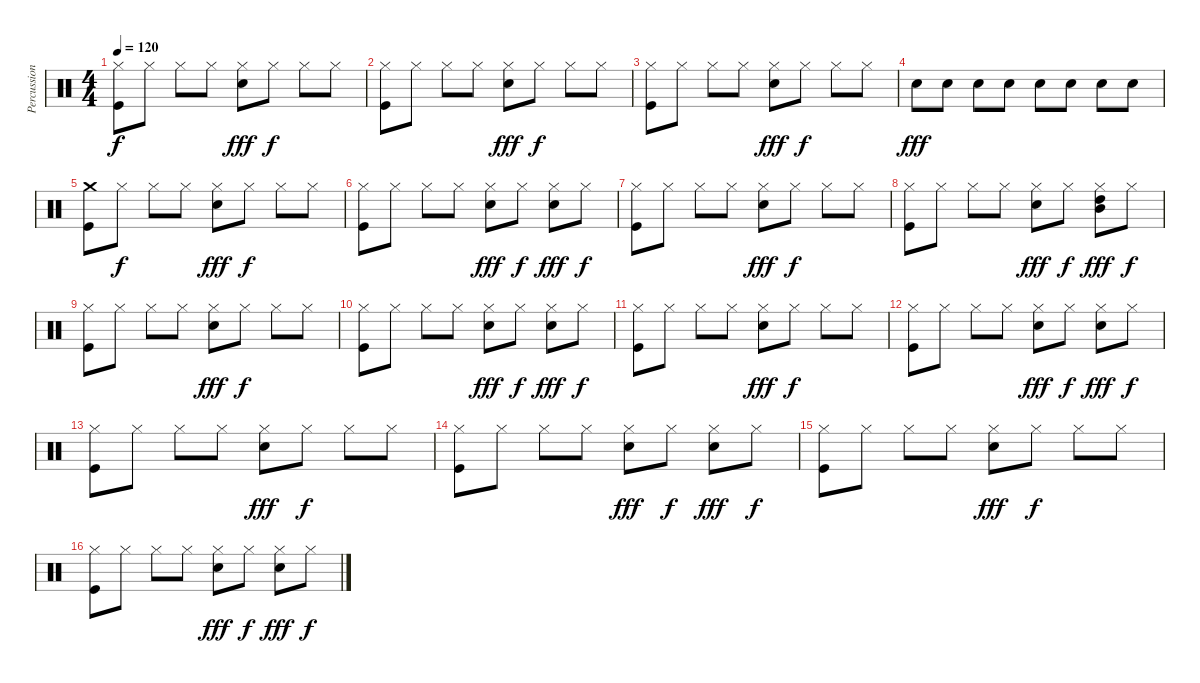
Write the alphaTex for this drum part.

\track ("Percussions" "Percussion") {instrument percussion}
\staff {score}
\articulation defaults
\ts (4 4)
\tempo 120
\clef neutral
\ks c
("Hi-Hat (closed)" "Kick (hit)").8{dy f} "Hi-Hat (closed)".8 "Hi-Hat (closed)".8 "Hi-Hat (closed)".8 ("Hi-Hat (closed)" "Snare (hit) 2").8{dy fff} "Hi-Hat (closed)".8{dy f} "Hi-Hat (closed)".8 "Hi-Hat (closed)".8 |
("Hi-Hat (closed)" "Kick (hit)").8 "Hi-Hat (closed)".8 "Hi-Hat (closed)".8 "Hi-Hat (closed)".8 ("Hi-Hat (closed)" "Snare (hit) 2").8{dy fff} "Hi-Hat (closed)".8{dy f} "Hi-Hat (closed)".8 "Hi-Hat (closed)".8 |
("Hi-Hat (closed)" "Kick (hit)").8 "Hi-Hat (closed)".8 "Hi-Hat (closed)".8 "Hi-Hat (closed)".8 ("Hi-Hat (closed)" "Snare (hit) 2").8{dy fff} "Hi-Hat (closed)".8{dy f} "Hi-Hat (closed)".8 "Hi-Hat (closed)".8 |
"Snare (hit) 2".8{dy fff} "Snare (hit) 2".8 "Snare (hit) 2".8 "Snare (hit) 2".8 "Snare (hit) 2".8 "Snare (hit) 2".8 "Snare (hit) 2".8 "Snare (hit) 2".8 |
("Crash medium (hit)" "Kick (hit)").8 "Hi-Hat (closed)".8{dy f} "Hi-Hat (closed)".8 "Hi-Hat (closed)".8 ("Hi-Hat (closed)" "Snare (hit) 2").8{dy fff} "Hi-Hat (closed)".8{dy f} "Hi-Hat (closed)".8 "Hi-Hat (closed)".8 |
("Hi-Hat (closed)" "Kick (hit)").8 "Hi-Hat (closed)".8 "Hi-Hat (closed)".8 "Hi-Hat (closed)".8 ("Hi-Hat (closed)" "Snare (hit) 2").8{dy fff} "Hi-Hat (closed)".8{dy f} ("Hi-Hat (closed)" "Snare (hit) 2").8{dy fff} "Hi-Hat (closed)".8{dy f} |
("Hi-Hat (closed)" "Kick (hit)").8 "Hi-Hat (closed)".8 "Hi-Hat (closed)".8 "Hi-Hat (closed)".8 ("Hi-Hat (closed)" "Snare (hit) 2").8{dy fff} "Hi-Hat (closed)".8{dy f} "Hi-Hat (closed)".8 "Hi-Hat (closed)".8 |
("Hi-Hat (closed)" "Kick (hit)").8 "Hi-Hat (closed)".8 "Hi-Hat (closed)".8 "Hi-Hat (closed)".8 ("Hi-Hat (closed)" "Snare (hit) 2").8{dy fff} "Hi-Hat (closed)".8{dy f} ("Hi-Hat (closed)" "High Tom (hit)" "Mid Tom (hit)").8{dy fff} "Hi-Hat (closed)".8{dy f} |
("Hi-Hat (closed)" "Kick (hit)").8 "Hi-Hat (closed)".8 "Hi-Hat (closed)".8 "Hi-Hat (closed)".8 ("Hi-Hat (closed)" "Snare (hit) 2").8{dy fff} "Hi-Hat (closed)".8{dy f} "Hi-Hat (closed)".8 "Hi-Hat (closed)".8 |
("Hi-Hat (closed)" "Kick (hit)").8 "Hi-Hat (closed)".8 "Hi-Hat (closed)".8 "Hi-Hat (closed)".8 ("Hi-Hat (closed)" "Snare (hit) 2").8{dy fff} "Hi-Hat (closed)".8{dy f} ("Hi-Hat (closed)" "Snare (hit) 2").8{dy fff} "Hi-Hat (closed)".8{dy f} |
("Hi-Hat (closed)" "Kick (hit)").8 "Hi-Hat (closed)".8 "Hi-Hat (closed)".8 "Hi-Hat (closed)".8 ("Hi-Hat (closed)" "Snare (hit) 2").8{dy fff} "Hi-Hat (closed)".8{dy f} "Hi-Hat (closed)".8 "Hi-Hat (closed)".8 |
("Hi-Hat (closed)" "Kick (hit)").8 "Hi-Hat (closed)".8 "Hi-Hat (closed)".8 "Hi-Hat (closed)".8 ("Hi-Hat (closed)" "Snare (hit) 2").8{dy fff} "Hi-Hat (closed)".8{dy f} ("Hi-Hat (closed)" "Snare (hit) 2").8{dy fff} "Hi-Hat (closed)".8{dy f} |
("Hi-Hat (closed)" "Kick (hit)").8 "Hi-Hat (closed)".8 "Hi-Hat (closed)".8 "Hi-Hat (closed)".8 ("Hi-Hat (closed)" "Snare (hit) 2").8{dy fff} "Hi-Hat (closed)".8{dy f} "Hi-Hat (closed)".8 "Hi-Hat (closed)".8 |
("Hi-Hat (closed)" "Kick (hit)").8 "Hi-Hat (closed)".8 "Hi-Hat (closed)".8 "Hi-Hat (closed)".8 ("Hi-Hat (closed)" "Snare (hit) 2").8{dy fff} "Hi-Hat (closed)".8{dy f} ("Hi-Hat (closed)" "Snare (hit) 2").8{dy fff} "Hi-Hat (closed)".8{dy f} |
("Hi-Hat (closed)" "Kick (hit)").8 "Hi-Hat (closed)".8 "Hi-Hat (closed)".8 "Hi-Hat (closed)".8 ("Hi-Hat (closed)" "Snare (hit) 2").8{dy fff} "Hi-Hat (closed)".8{dy f} "Hi-Hat (closed)".8 "Hi-Hat (closed)".8 |
("Hi-Hat (closed)" "Kick (hit)").8 "Hi-Hat (closed)".8 "Hi-Hat (closed)".8 "Hi-Hat (closed)".8 ("Hi-Hat (closed)" "Snare (hit) 2").8{dy fff} "Hi-Hat (closed)".8{dy f} ("Hi-Hat (closed)" "Snare (hit) 2").8{dy fff} "Hi-Hat (closed)".8{dy f}
